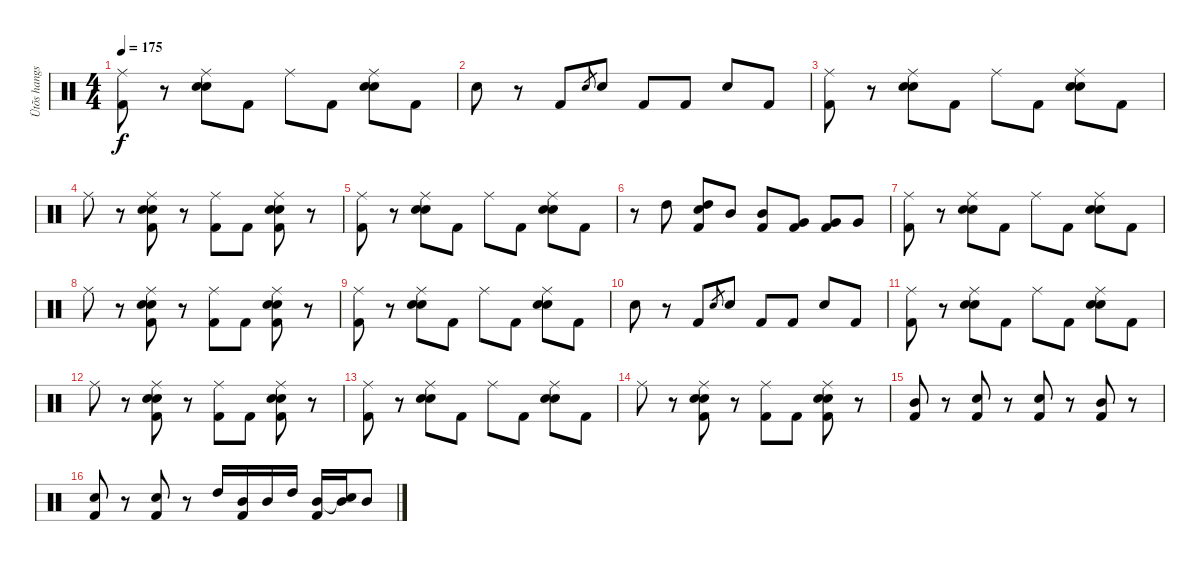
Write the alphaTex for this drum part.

\track ("Ütõs hangszer" "Ütõs hangs") {instrument percussion}
\staff {score}
\articulation defaults
\ts (4 4)
\tempo 175
\clef neutral
\ks c
("Ride (middle)" "Kick (hit) 2").8{dy f} r.8 ("Hand Clap (hit)" "Ride (middle)" "Snare (hit) 2").8 "Kick (hit) 2".8 "Ride (middle)".8 "Kick (hit) 2".8 ("Hand Clap (hit)" "Ride (middle)" "Snare (hit) 2").8 "Kick (hit) 2".8 |
"Snare (hit) 2".8 r.8 "Kick (hit) 2".8 "Snare (hit) 2".8{gr} "Snare (hit) 2".8 "Kick (hit) 2".8 "Kick (hit) 2".8 "Snare (hit) 2".8 "Kick (hit) 2".8 |
("Ride (middle)" "Kick (hit) 2").8 r.8 ("Hand Clap (hit)" "Ride (middle)" "Snare (hit) 2").8 "Kick (hit) 2".8 "Ride (middle)".8 "Kick (hit) 2".8 ("Hand Clap (hit)" "Ride (middle)" "Snare (hit) 2").8 "Kick (hit) 2".8 |
"Ride (middle)".8 r.8 ("Hand Clap (hit)" "Ride (middle)" "Snare (hit) 2" "Kick (hit) 2").8 r.8 ("Ride (middle)" "Kick (hit) 2").8 "Kick (hit) 2".8 ("Hand Clap (hit)" "Ride (middle)" "Snare (hit) 2" "Kick (hit) 2").8 r.8 |
("Ride (middle)" "Kick (hit) 2").8 r.8 ("Hand Clap (hit)" "Ride (middle)" "Snare (hit) 2").8 "Kick (hit) 2".8 "Ride (middle)".8 "Kick (hit) 2".8 ("Hand Clap (hit)" "Ride (middle)" "Snare (hit) 2").8 "Kick (hit) 2".8 |
r.8 "High Tom (hit)".8 ("High Tom (hit)" "Snare (hit) 2" "Kick (hit) 2").8 "Mid Tom (hit)".8 ("Mid Tom (hit)" "Kick (hit) 2").8 ("Very Low Tom (hit)" "Kick (hit) 2").8 ("Very Low Tom (hit)" "Kick (hit) 2").8 "Very Low Tom (hit)".8 |
("Ride (middle)" "Kick (hit) 2").8 r.8 ("Hand Clap (hit)" "Ride (middle)" "Snare (hit) 2").8 "Kick (hit) 2".8 "Ride (middle)".8 "Kick (hit) 2".8 ("Hand Clap (hit)" "Ride (middle)" "Snare (hit) 2").8 "Kick (hit) 2".8 |
"Ride (middle)".8 r.8 ("Hand Clap (hit)" "Ride (middle)" "Snare (hit) 2" "Kick (hit) 2").8 r.8 ("Ride (middle)" "Kick (hit) 2").8 "Kick (hit) 2".8 ("Hand Clap (hit)" "Ride (middle)" "Snare (hit) 2" "Kick (hit) 2").8 r.8 |
("Ride (middle)" "Kick (hit) 2").8 r.8 ("Hand Clap (hit)" "Ride (middle)" "Snare (hit) 2").8 "Kick (hit) 2".8 "Ride (middle)".8 "Kick (hit) 2".8 ("Hand Clap (hit)" "Ride (middle)" "Snare (hit) 2").8 "Kick (hit) 2".8 |
"Snare (hit) 2".8 r.8 "Kick (hit) 2".8 "Snare (hit) 2".8{gr} "Snare (hit) 2".8 "Kick (hit) 2".8 "Kick (hit) 2".8 "Snare (hit) 2".8 "Kick (hit) 2".8 |
("Ride (middle)" "Kick (hit) 2").8 r.8 ("Hand Clap (hit)" "Ride (middle)" "Snare (hit) 2").8 "Kick (hit) 2".8 "Ride (middle)".8 "Kick (hit) 2".8 ("Hand Clap (hit)" "Ride (middle)" "Snare (hit) 2").8 "Kick (hit) 2".8 |
"Ride (middle)".8 r.8 ("Hand Clap (hit)" "Ride (middle)" "Snare (hit) 2" "Kick (hit) 2").8 r.8 ("Ride (middle)" "Kick (hit) 2").8 "Kick (hit) 2".8 ("Hand Clap (hit)" "Ride (middle)" "Snare (hit) 2" "Kick (hit) 2").8 r.8 |
("Ride (middle)" "Kick (hit) 2").8 r.8 ("Hand Clap (hit)" "Ride (middle)" "Snare (hit) 2").8 "Kick (hit) 2".8 "Ride (middle)".8 "Kick (hit) 2".8 ("Hand Clap (hit)" "Ride (middle)" "Snare (hit) 2").8 "Kick (hit) 2".8 |
"Ride (middle)".8 r.8 ("Hand Clap (hit)" "Ride (middle)" "Snare (hit) 2" "Kick (hit) 2").8 r.8 ("Ride (middle)" "Kick (hit) 2").8 "Kick (hit) 2".8 ("Hand Clap (hit)" "Ride (middle)" "Snare (hit) 2" "Kick (hit) 2").8 r.8 |
("Mid Tom (hit)" "Kick (hit) 2").8 r.8 ("Snare (hit) 2" "Kick (hit) 2").8 r.8 ("Snare (hit) 2" "Kick (hit) 2").8 r.8 ("Mid Tom (hit)" "Kick (hit) 2").8 r.8 |
("Snare (hit) 2" "Kick (hit) 2").8 r.8 ("Snare (hit) 2" "Kick (hit) 2").8 r.8 "High Tom (hit)".16 ("Mid Tom (hit)" "Kick (hit) 2").16 "Mid Tom (hit)".16 "High Tom (hit)".16 ("Mid Tom (hit)" "Kick (hit) 2").16 ("Snare (hit)"{t} "Mid Tom (hit)").16 "Mid Tom (hit)".8
